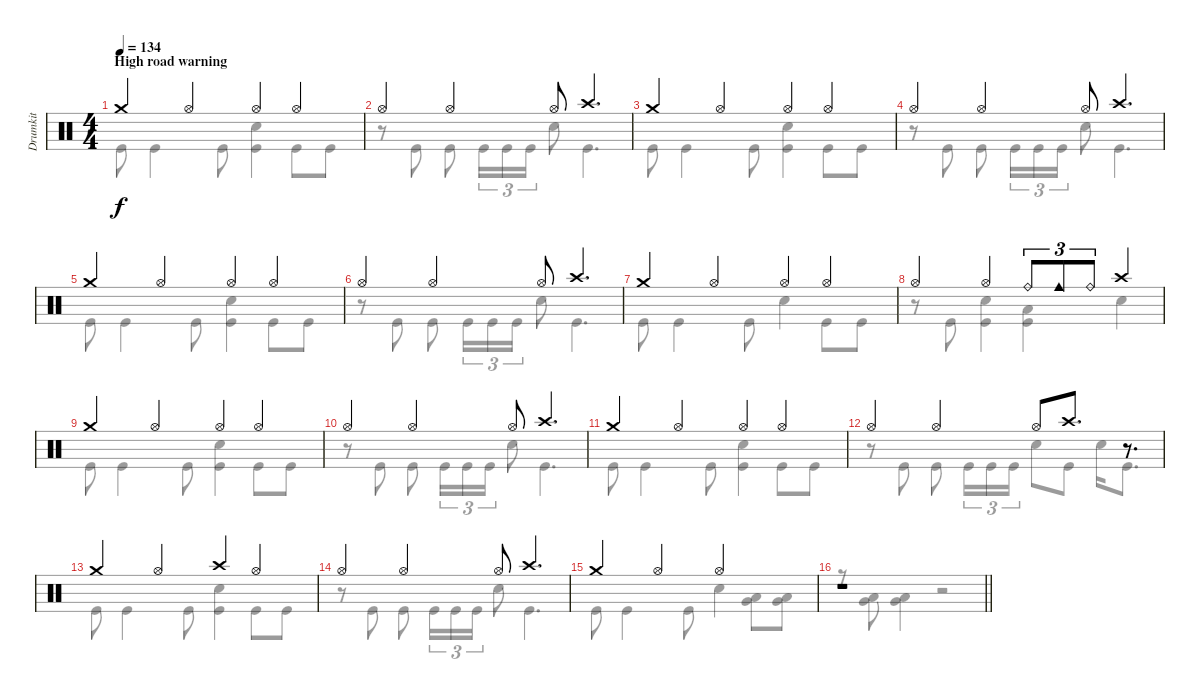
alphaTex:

\track ("Drumkit" "Drumkit") {instrument percussion}
\staff {score}
\articulation defaults
\voice
\ts (4 4)
\section ("" "High road warning")
\tempo 134
\clef neutral
\ks c "Crash medium (hit)".4{dy f} "Hi-Hat (open)".4 "Hi-Hat (open)".4 "Hi-Hat (open)".4
|
"Hi-Hat (open)".4 "Hi-Hat (open)".4 "Hi-Hat (open)".8 "Crash high (hit)".4{d} |
"Crash medium (hit)".4 "Hi-Hat (open)".4 "Hi-Hat (open)".4 "Hi-Hat (open)".4 |
"Hi-Hat (open)".4 "Hi-Hat (open)".4 "Hi-Hat (open)".8 "Crash high (hit)".4{d} |
"Crash medium (hit)".4 "Hi-Hat (open)".4 "Hi-Hat (open)".4 "Hi-Hat (open)".4 |
"Hi-Hat (open)".4 "Hi-Hat (open)".4 "Hi-Hat (open)".8 "Crash high (hit)".4{d} |
"Crash medium (hit)".4 "Hi-Hat (open)".4 "Hi-Hat (open)".4 "Hi-Hat (open)".4 |
"Hi-Hat (open)".4 "Hi-Hat (open)".4 "Ride (bell)".8{tu (3 2)} "Cowbell medium (hit)".8{tu (3 2)} "Ride (bell)".8{tu (3 2)} "Crash high (hit)".4 |
"Crash medium (hit)".4 "Hi-Hat (open)".4 "Hi-Hat (open)".4 "Hi-Hat (open)".4 |
"Hi-Hat (open)".4 "Hi-Hat (open)".4 "Hi-Hat (open)".8 "Crash high (hit)".4{d} |
"Crash medium (hit)".4 "Hi-Hat (open)".4 "Hi-Hat (open)".4 "Hi-Hat (open)".4 |
"Hi-Hat (open)".4 "Hi-Hat (open)".4 "Hi-Hat (open)".8 "Crash high (hit)".8{d} r.8{d} |
"Crash medium (hit)".4 "Hi-Hat (open)".4 "Crash high (hit)".4 "Hi-Hat (open)".4 |
"Hi-Hat (open)".4 "Hi-Hat (open)".4 "Hi-Hat (open)".8 "Crash high (hit)".4{d} |
"Crash medium (hit)".4 "Hi-Hat (open)".4 "Hi-Hat (open)".2 |
\barLineRight lightlight
r.1
\voice
\clef neutral
\ottava regular
\simile none
\ks c "Kick (hit)".8{dy f} "Kick (hit)".4 "Kick (hit)".8
("Snare (hit) 2" "Kick (hit)").4 "Kick (hit)".8 "Kick (hit)".8 |
r.8 "Kick (hit)".8 "Kick (hit)".8 "Kick (hit)".16{tu (3 2)} "Kick (hit)".16{tu (3 2)} "Kick (hit)".16{tu (3 2)} "Snare (hit) 2".8 "Kick (hit)".4{d} |
"Kick (hit)".8 "Kick (hit)".4 "Kick (hit)".8 ("Snare (hit) 2" "Kick (hit)").4 "Kick (hit)".8 "Kick (hit)".8 |
r.8 "Kick (hit)".8 "Kick (hit)".8 "Kick (hit)".16{tu (3 2)} "Kick (hit)".16{tu (3 2)} "Kick (hit)".16{tu (3 2)} "Snare (hit) 2".8 "Kick (hit)".4{d} |
"Kick (hit)".8 "Kick (hit)".4 "Kick (hit)".8 ("Snare (hit) 2" "Kick (hit)").4 "Kick (hit)".8 "Kick (hit)".8 |
r.8 "Kick (hit)".8 "Kick (hit)".8 "Kick (hit)".16{tu (3 2)} "Kick (hit)".16{tu (3 2)} "Kick (hit)".16{tu (3 2)} "Snare (hit) 2".8 "Kick (hit)".4{d} |
"Kick (hit)".8 "Kick (hit)".4 "Kick (hit)".8 "Snare (hit) 2".4 "Kick (hit)".8 "Kick (hit)".8 |
r.8 "Kick (hit)".8 ("Snare (hit) 2" "Kick (hit)").4 ("Low Floor Tom (hit)" "Kick (hit)").4 "Snare (hit) 2".4 |
"Kick (hit)".8 "Kick (hit)".4 "Kick (hit)".8 ("Snare (hit) 2" "Kick (hit)").4 "Kick (hit)".8 "Kick (hit)".8 |
r.8 "Kick (hit)".8 "Kick (hit)".8 "Kick (hit)".16{tu (3 2)} "Kick (hit)".16{tu (3 2)} "Kick (hit)".16{tu (3 2)} "Snare (hit) 2".8 "Kick (hit)".4{d} |
"Kick (hit)".8 "Kick (hit)".4 "Kick (hit)".8 ("Snare (hit) 2" "Kick (hit)").4 "Kick (hit)".8 "Kick (hit)".8 |
r.8 "Kick (hit)".8 "Kick (hit)".8 "Kick (hit)".16{tu (3 2)} "Kick (hit)".16{tu (3 2)} "Kick (hit)".16{tu (3 2)} "Snare (hit) 2".8 "Kick (hit)".8 "Snare (hit) 2".16 "Kick (hit)".8{d} |
"Kick (hit)".8 "Kick (hit)".4 "Kick (hit)".8 ("Snare (hit) 2" "Kick (hit)").4 "Kick (hit)".8 "Kick (hit)".8 |
r.8 "Kick (hit)".8 "Kick (hit)".8 "Kick (hit)".16{tu (3 2)} "Kick (hit)".16{tu (3 2)} "Kick (hit)".16{tu (3 2)} "Snare (hit) 2".8 "Kick (hit)".4{d} |
"Kick (hit)".8 "Kick (hit)".4 "Kick (hit)".8 "Snare (hit) 2".4 ("Low Tom (hit)" "Very Low Tom (hit)").8 ("Low Tom (hit)" "Very Low Tom (hit)").8 |
\barLineRight lightlight
r.8 ("Low Tom (hit)" "Very Low Tom (hit)").8 ("Low Tom (hit)" "Very Low Tom (hit)").4 r.2
